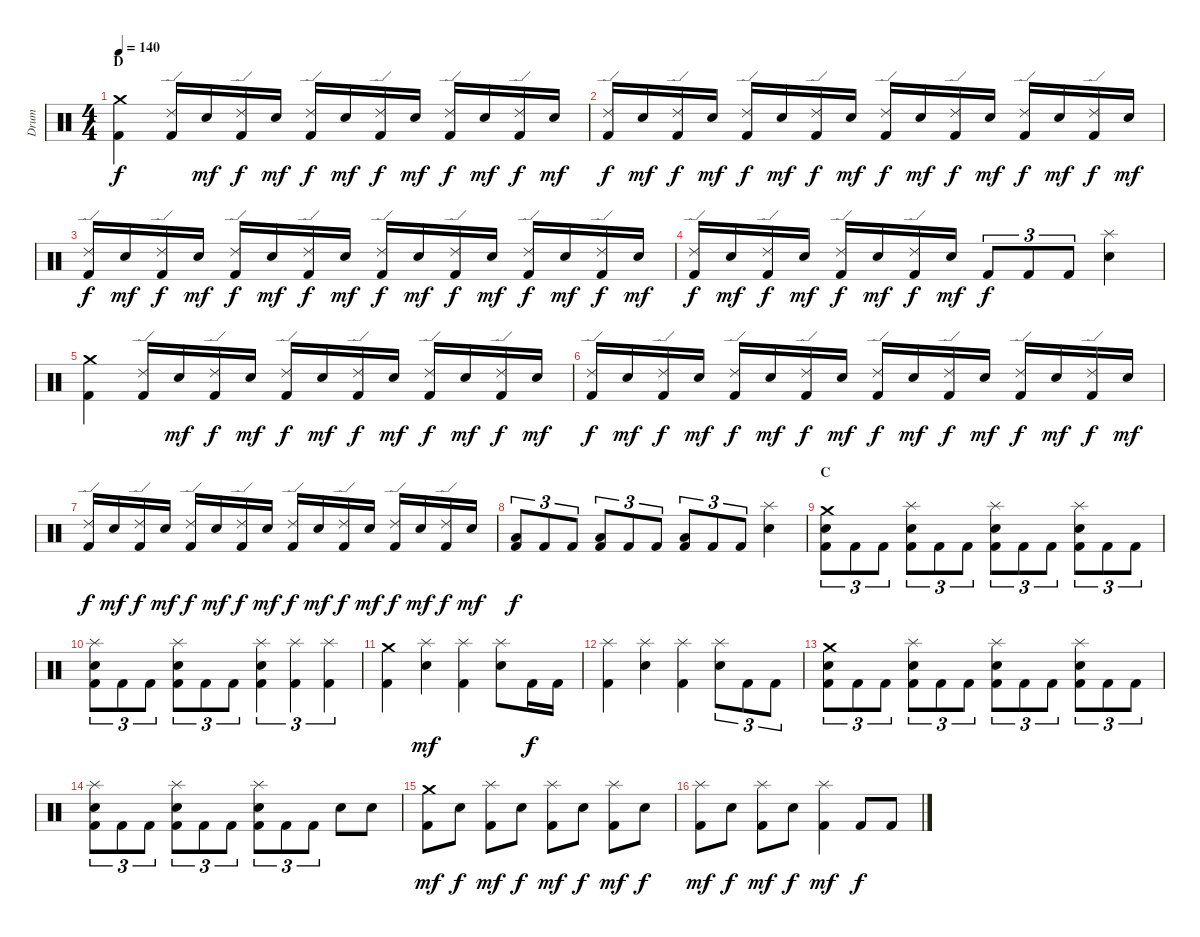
\track ("Drum" "Drum") {instrument percussion}
\staff {score}
\articulation defaults
\ts (4 4)
\section ("" "D")
\tempo 140
\clef neutral
\ks c
("Crash medium (hit)" "Kick (hit) 2").4{dy f} ("Ride (edge) 2" "Kick (hit) 2").16 "Electric Snare (hit)".16{dy mf} ("Ride (edge) 2" "Kick (hit) 2").16{dy f} "Electric Snare (hit)".16{dy mf} ("Ride (edge) 2" "Kick (hit) 2").16{dy f} "Electric Snare (hit)".16{dy mf} ("Ride (edge) 2" "Kick (hit) 2").16{dy f} "Electric Snare (hit)".16{dy mf} ("Ride (edge) 2" "Kick (hit) 2").16{dy f} "Electric Snare (hit)".16{dy mf} ("Ride (edge) 2" "Kick (hit) 2").16{dy f} "Electric Snare (hit)".16{dy mf} |
("Ride (edge) 2" "Kick (hit) 2").16{dy f} "Electric Snare (hit)".16{dy mf} ("Ride (edge) 2" "Kick (hit) 2").16{dy f} "Electric Snare (hit)".16{dy mf} ("Ride (edge) 2" "Kick (hit) 2").16{dy f} "Electric Snare (hit)".16{dy mf} ("Ride (edge) 2" "Kick (hit) 2").16{dy f} "Electric Snare (hit)".16{dy mf} ("Ride (edge) 2" "Kick (hit) 2").16{dy f} "Electric Snare (hit)".16{dy mf} ("Ride (edge) 2" "Kick (hit) 2").16{dy f} "Electric Snare (hit)".16{dy mf} ("Ride (edge) 2" "Kick (hit) 2").16{dy f} "Electric Snare (hit)".16{dy mf} ("Ride (edge) 2" "Kick (hit) 2").16{dy f} "Electric Snare (hit)".16{dy mf} |
("Ride (edge) 2" "Kick (hit) 2").16{dy f} "Electric Snare (hit)".16{dy mf} ("Ride (edge) 2" "Kick (hit) 2").16{dy f} "Electric Snare (hit)".16{dy mf} ("Ride (edge) 2" "Kick (hit) 2").16{dy f} "Electric Snare (hit)".16{dy mf} ("Ride (edge) 2" "Kick (hit) 2").16{dy f} "Electric Snare (hit)".16{dy mf} ("Ride (edge) 2" "Kick (hit) 2").16{dy f} "Electric Snare (hit)".16{dy mf} ("Ride (edge) 2" "Kick (hit) 2").16{dy f} "Electric Snare (hit)".16{dy mf} ("Ride (edge) 2" "Kick (hit) 2").16{dy f} "Electric Snare (hit)".16{dy mf} ("Ride (edge) 2" "Kick (hit) 2").16{dy f} "Electric Snare (hit)".16{dy mf} |
("Ride (edge) 2" "Kick (hit) 2").16{dy f} "Electric Snare (hit)".16{dy mf} ("Ride (edge) 2" "Kick (hit) 2").16{dy f} "Electric Snare (hit)".16{dy mf} ("Ride (edge) 2" "Kick (hit) 2").16{dy f} "Electric Snare (hit)".16{dy mf} ("Ride (edge) 2" "Kick (hit) 2").16{dy f} "Electric Snare (hit)".16{dy mf} "Kick (hit) 2".8{tu (3 2) dy f} "Kick (hit) 2".8{tu (3 2)} "Kick (hit) 2".8{tu (3 2)} ("Splash (hit)" "Electric Snare (hit)").4 |
("Crash medium (hit)" "Kick (hit) 2").4 ("Ride (edge) 2" "Kick (hit) 2").16 "Electric Snare (hit)".16{dy mf} ("Ride (edge) 2" "Kick (hit) 2").16{dy f} "Electric Snare (hit)".16{dy mf} ("Ride (edge) 2" "Kick (hit) 2").16{dy f} "Electric Snare (hit)".16{dy mf} ("Ride (edge) 2" "Kick (hit) 2").16{dy f} "Electric Snare (hit)".16{dy mf} ("Ride (edge) 2" "Kick (hit) 2").16{dy f} "Electric Snare (hit)".16{dy mf} ("Ride (edge) 2" "Kick (hit) 2").16{dy f} "Electric Snare (hit)".16{dy mf} |
("Ride (edge) 2" "Kick (hit) 2").16{dy f} "Electric Snare (hit)".16{dy mf} ("Ride (edge) 2" "Kick (hit) 2").16{dy f} "Electric Snare (hit)".16{dy mf} ("Ride (edge) 2" "Kick (hit) 2").16{dy f} "Electric Snare (hit)".16{dy mf} ("Ride (edge) 2" "Kick (hit) 2").16{dy f} "Electric Snare (hit)".16{dy mf} ("Ride (edge) 2" "Kick (hit) 2").16{dy f} "Electric Snare (hit)".16{dy mf} ("Ride (edge) 2" "Kick (hit) 2").16{dy f} "Electric Snare (hit)".16{dy mf} ("Ride (edge) 2" "Kick (hit) 2").16{dy f} "Electric Snare (hit)".16{dy mf} ("Ride (edge) 2" "Kick (hit) 2").16{dy f} "Electric Snare (hit)".16{dy mf} |
("Ride (edge) 2" "Kick (hit) 2").16{dy f} "Electric Snare (hit)".16{dy mf} ("Ride (edge) 2" "Kick (hit) 2").16{dy f} "Electric Snare (hit)".16{dy mf} ("Ride (edge) 2" "Kick (hit) 2").16{dy f} "Electric Snare (hit)".16{dy mf} ("Ride (edge) 2" "Kick (hit) 2").16{dy f} "Electric Snare (hit)".16{dy mf} ("Ride (edge) 2" "Kick (hit) 2").16{dy f} "Electric Snare (hit)".16{dy mf} ("Ride (edge) 2" "Kick (hit) 2").16{dy f} "Electric Snare (hit)".16{dy mf} ("Ride (edge) 2" "Kick (hit) 2").16{dy f} "Electric Snare (hit)".16{dy mf} ("Ride (edge) 2" "Kick (hit) 2").16{dy f} "Electric Snare (hit)".16{dy mf} |
("Low Tom (hit)" "Kick (hit) 2").8{tu (3 2) dy f} "Kick (hit) 2".8{tu (3 2)} "Kick (hit) 2".8{tu (3 2)} ("Low Tom (hit)" "Kick (hit) 2").8{tu (3 2)} "Kick (hit) 2".8{tu (3 2)} "Kick (hit) 2".8{tu (3 2)} ("Low Tom (hit)" "Kick (hit) 2").8{tu (3 2)} "Kick (hit) 2".8{tu (3 2)} "Kick (hit) 2".8{tu (3 2)} ("Splash (hit)" "Electric Snare (hit)").4 |
\section ("" "C")
("Crash medium (hit)" "Electric Snare (hit)" "Kick (hit) 2").8{tu (3 2)} "Kick (hit) 2".8{tu (3 2)} "Kick (hit) 2".8{tu (3 2)} ("Splash (hit)" "Electric Snare (hit)" "Kick (hit) 2").8{tu (3 2)} "Kick (hit) 2".8{tu (3 2)} "Kick (hit) 2".8{tu (3 2)} ("Splash (hit)" "Electric Snare (hit)" "Kick (hit) 2").8{tu (3 2)} "Kick (hit) 2".8{tu (3 2)} "Kick (hit) 2".8{tu (3 2)} ("Splash (hit)" "Electric Snare (hit)" "Kick (hit) 2").8{tu (3 2)} "Kick (hit) 2".8{tu (3 2)} "Kick (hit) 2".8{tu (3 2)} |
("Splash (hit)" "Electric Snare (hit)" "Kick (hit) 2").8{tu (3 2)} "Kick (hit) 2".8{tu (3 2)} "Kick (hit) 2".8{tu (3 2)} ("Splash (hit)" "Electric Snare (hit)" "Kick (hit) 2").8{tu (3 2)} "Kick (hit) 2".8{tu (3 2)} "Kick (hit) 2".8{tu (3 2)} ("Splash (hit)" "Electric Snare (hit)" "Kick (hit) 2").4{tu (3 2)} ("Splash (hit)" "Kick (hit) 2").4{tu (3 2)} ("Splash (hit)" "Kick (hit) 2").4{tu (3 2)} |
("Crash medium (hit)" "Kick (hit) 2").4 ("Splash (hit)" "Electric Snare (hit)").4{dy mf} ("Splash (hit)" "Kick (hit) 2").4 ("Splash (hit)" "Electric Snare (hit)").8 "Kick (hit) 2".16{dy f} "Kick (hit) 2".16 |
("Splash (hit)" "Kick (hit) 2").4 ("Splash (hit)" "Electric Snare (hit)").4 ("Splash (hit)" "Kick (hit) 2").4 ("Splash (hit)" "Electric Snare (hit)").8{tu (3 2)} "Kick (hit) 2".8{tu (3 2)} "Kick (hit) 2".8{tu (3 2)} |
("Crash medium (hit)" "Electric Snare (hit)" "Kick (hit) 2").8{tu (3 2)} "Kick (hit) 2".8{tu (3 2)} "Kick (hit) 2".8{tu (3 2)} ("Splash (hit)" "Electric Snare (hit)" "Kick (hit) 2").8{tu (3 2)} "Kick (hit) 2".8{tu (3 2)} "Kick (hit) 2".8{tu (3 2)} ("Splash (hit)" "Electric Snare (hit)" "Kick (hit) 2").8{tu (3 2)} "Kick (hit) 2".8{tu (3 2)} "Kick (hit) 2".8{tu (3 2)} ("Splash (hit)" "Electric Snare (hit)" "Kick (hit) 2").8{tu (3 2)} "Kick (hit) 2".8{tu (3 2)} "Kick (hit) 2".8{tu (3 2)} |
("Splash (hit)" "Electric Snare (hit)" "Kick (hit) 2").8{tu (3 2)} "Kick (hit) 2".8{tu (3 2)} "Kick (hit) 2".8{tu (3 2)} ("Splash (hit)" "Electric Snare (hit)" "Kick (hit) 2").8{tu (3 2)} "Kick (hit) 2".8{tu (3 2)} "Kick (hit) 2".8{tu (3 2)} ("Splash (hit)" "Electric Snare (hit)" "Kick (hit) 2").8{tu (3 2)} "Kick (hit) 2".8{tu (3 2)} "Kick (hit) 2".8{tu (3 2)} "Electric Snare (hit)".8 "Electric Snare (hit)".8 |
("Crash medium (hit)" "Kick (hit) 2").8{dy mf} "Electric Snare (hit)".8{dy f} ("Splash (hit)" "Kick (hit) 2").8{dy mf} "Electric Snare (hit)".8{dy f} ("Splash (hit)" "Kick (hit) 2").8{dy mf} "Electric Snare (hit)".8{dy f} ("Splash (hit)" "Kick (hit) 2").8{dy mf} "Electric Snare (hit)".8{dy f} |
("Splash (hit)" "Kick (hit) 2").8{dy mf} "Electric Snare (hit)".8{dy f} ("Splash (hit)" "Kick (hit) 2").8{dy mf} "Electric Snare (hit)".8{dy f} ("Splash (hit)" "Kick (hit) 2").4{dy mf} "Kick (hit) 2".8{dy f} "Kick (hit) 2".8
